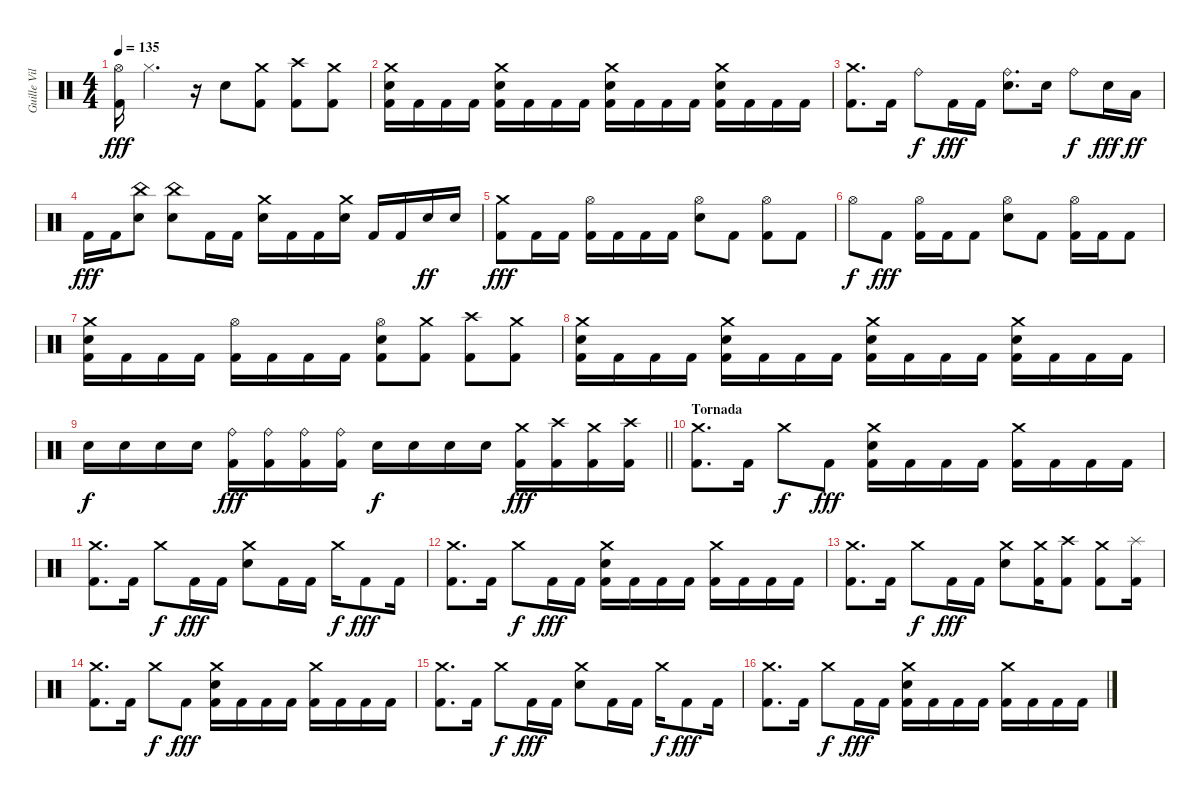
\track ("Guille Vila" "Guille Vil") {instrument percussion}
\staff {score}
\articulation defaults
\ts (4 4)
\tempo 135
\clef neutral
\ks c
("Hi-Hat (open)" "Kick (hit) 2").16{dy fff} "Hi-Hat (closed)".4{d} r.16 "Snare (hit) 2".8 ("Crash medium (hit)" "Kick (hit) 2").8 ("Crash high (hit)" "Kick (hit) 2").8 ("Crash medium (hit)" "Kick (hit) 2").8 |
("Crash medium (hit)" "Snare (hit) 2" "Kick (hit) 2").16 "Kick (hit) 2".16 "Kick (hit) 2".16 "Kick (hit) 2".16 ("Crash medium (hit)" "Snare (hit) 2" "Kick (hit) 2").16 "Kick (hit) 2".16 "Kick (hit) 2".16 "Kick (hit) 2".16 ("Crash medium (hit)" "Snare (hit) 2" "Kick (hit) 2").16 "Kick (hit) 2".16 "Kick (hit) 2".16 "Kick (hit) 2".16 ("Crash medium (hit)" "Snare (hit) 2" "Kick (hit) 2").16 "Kick (hit) 2".16 "Kick (hit) 2".16 "Kick (hit) 2".16 |
("Crash medium (hit)" "Kick (hit) 2").8{d} "Kick (hit) 2".16 "Ride (bell)".8{dy f} "Kick (hit) 2".16{dy fff} "Kick (hit) 2".16 ("Ride (bell)" "Snare (hit) 2").8{d} "Snare (hit) 2".16 "Ride (bell)".8{dy f} "Snare (hit) 2".16{dy fff} "Low Tom (hit)".16{dy ff} |
"Kick (hit) 2".16{dy fff} "Kick (hit) 2".16 ("China (hit)" "Snare (hit) 2").8 ("China (hit)" "Snare (hit) 2").8 "Kick (hit) 2".16 "Kick (hit) 2".16 ("Crash medium (hit)" "Snare (hit) 2").16 "Kick (hit) 2".16 "Kick (hit) 2".16 ("Crash medium (hit)" "Snare (hit) 2").16 "Kick (hit) 2".16 "Kick (hit) 2".16 "Snare (hit) 2".16{dy ff} "Snare (hit) 2".16 |
("Crash medium (hit)" "Kick (hit) 2").8{dy fff} "Kick (hit) 2".16 "Kick (hit) 2".16 ("Hi-Hat (open)" "Kick (hit) 2").16 "Kick (hit) 2".16 "Kick (hit) 2".16 "Kick (hit) 2".16 ("Hi-Hat (open)" "Snare (hit) 2").8 "Kick (hit) 2".8 ("Hi-Hat (open)" "Kick (hit) 2").8 "Kick (hit) 2".8 |
"Hi-Hat (open)".8{dy f} "Kick (hit) 2".8{dy fff} ("Hi-Hat (open)" "Kick (hit) 2").16 "Kick (hit) 2".16 "Kick (hit) 2".8 ("Hi-Hat (open)" "Snare (hit) 2").8 "Kick (hit) 2".8 ("Hi-Hat (open)" "Kick (hit) 2").16 "Kick (hit) 2".16 "Kick (hit) 2".8 |
("Crash medium (hit)" "Snare (hit) 2" "Kick (hit) 2").16 "Kick (hit) 2".16 "Kick (hit) 2".16 "Kick (hit) 2".16 ("Hi-Hat (open)" "Kick (hit) 2").16 "Kick (hit) 2".16 "Kick (hit) 2".16 "Kick (hit) 2".16 ("Hi-Hat (open)" "Snare (hit) 2" "Kick (hit) 2").8 ("Crash medium (hit)" "Kick (hit) 2").8 ("Crash high (hit)" "Kick (hit) 2").8 ("Crash medium (hit)" "Kick (hit) 2").8 |
("Crash medium (hit)" "Snare (hit) 2" "Kick (hit) 2").16 "Kick (hit) 2".16 "Kick (hit) 2".16 "Kick (hit) 2".16 ("Crash medium (hit)" "Snare (hit) 2" "Kick (hit) 2").16 "Kick (hit) 2".16 "Kick (hit) 2".16 "Kick (hit) 2".16 ("Crash medium (hit)" "Snare (hit) 2" "Kick (hit) 2").16 "Kick (hit) 2".16 "Kick (hit) 2".16 "Kick (hit) 2".16 ("Crash medium (hit)" "Snare (hit) 2" "Kick (hit) 2").16 "Kick (hit) 2".16 "Kick (hit) 2".16 "Kick (hit) 2".16 |
\barLineRight lightlight "Snare (hit) 2".16{dy f} "Snare (hit) 2".16 "Snare (hit) 2".16 "Snare (hit) 2".16
("Ride (bell)" "Kick (hit) 2").16{dy fff} ("Ride (bell)" "Kick (hit) 2").16 ("Ride (bell)" "Kick (hit) 2").16 ("Ride (bell)" "Kick (hit) 2").16 "Snare (hit) 2".16{dy f} "Snare (hit) 2".16 "Snare (hit) 2".16 "Snare (hit) 2".16 ("Crash medium (hit)" "Kick (hit) 2").16{dy fff} ("Crash high (hit)" "Kick (hit) 2").16 ("Crash medium (hit)" "Kick (hit) 2").16 ("Crash high (hit)" "Kick (hit) 2").16 |
\section ("" "Tornada")
("Crash medium (hit)" "Kick (hit) 2").8{d} "Kick (hit) 2".16 "Crash medium (hit)".8{dy f} "Kick (hit) 2".8{dy fff} ("Crash medium (hit)" "Snare (hit) 2" "Kick (hit) 2").16 "Kick (hit) 2".16 "Kick (hit) 2".16 "Kick (hit) 2".16 ("Crash medium (hit)" "Kick (hit) 2").16 "Kick (hit) 2".16 "Kick (hit) 2".16 "Kick (hit) 2".16 |
("Crash medium (hit)" "Kick (hit) 2").8{d} "Kick (hit) 2".16 "Crash medium (hit)".8{dy f} "Kick (hit) 2".16{dy fff} "Kick (hit) 2".16 ("Crash medium (hit)" "Snare (hit) 2").8 "Kick (hit) 2".16 "Kick (hit) 2".16 "Crash medium (hit)".16{dy f} "Kick (hit) 2".8{dy fff} "Kick (hit) 2".16 |
("Crash medium (hit)" "Kick (hit) 2").8{d} "Kick (hit) 2".16 "Crash medium (hit)".8{dy f} "Kick (hit) 2".16{dy fff} "Kick (hit) 2".16 ("Crash medium (hit)" "Snare (hit) 2" "Kick (hit) 2").16 "Kick (hit) 2".16 "Kick (hit) 2".16 "Kick (hit) 2".16 ("Crash medium (hit)" "Kick (hit) 2").16 "Kick (hit) 2".16 "Kick (hit) 2".16 "Kick (hit) 2".16 |
("Crash medium (hit)" "Kick (hit) 2").8{d} "Kick (hit) 2".16 "Crash medium (hit)".8{dy f} "Kick (hit) 2".16{dy fff} "Kick (hit) 2".16 ("Crash medium (hit)" "Snare (hit) 2").8 ("Crash medium (hit)" "Kick (hit) 2").16 ("Crash high (hit)" "Kick (hit) 2").8 ("Crash medium (hit)" "Kick (hit) 2").8 ("Splash (hit)" "Kick (hit) 2").16 |
("Crash medium (hit)" "Kick (hit) 2").8{d} "Kick (hit) 2".16 "Crash medium (hit)".8{dy f} "Kick (hit) 2".8{dy fff} ("Crash medium (hit)" "Snare (hit) 2" "Kick (hit) 2").16 "Kick (hit) 2".16 "Kick (hit) 2".16 "Kick (hit) 2".16 ("Crash medium (hit)" "Kick (hit) 2").16 "Kick (hit) 2".16 "Kick (hit) 2".16 "Kick (hit) 2".16 |
("Crash medium (hit)" "Kick (hit) 2").8{d} "Kick (hit) 2".16 "Crash medium (hit)".8{dy f} "Kick (hit) 2".16{dy fff} "Kick (hit) 2".16 ("Crash medium (hit)" "Snare (hit) 2").8 "Kick (hit) 2".16 "Kick (hit) 2".16 "Crash medium (hit)".16{dy f} "Kick (hit) 2".8{dy fff} "Kick (hit) 2".16 |
("Crash medium (hit)" "Kick (hit) 2").8{d} "Kick (hit) 2".16 "Crash medium (hit)".8{dy f} "Kick (hit) 2".16{dy fff} "Kick (hit) 2".16 ("Crash medium (hit)" "Snare (hit) 2" "Kick (hit) 2").16 "Kick (hit) 2".16 "Kick (hit) 2".16 "Kick (hit) 2".16 ("Crash medium (hit)" "Kick (hit) 2").16 "Kick (hit) 2".16 "Kick (hit) 2".16 "Kick (hit) 2".16
